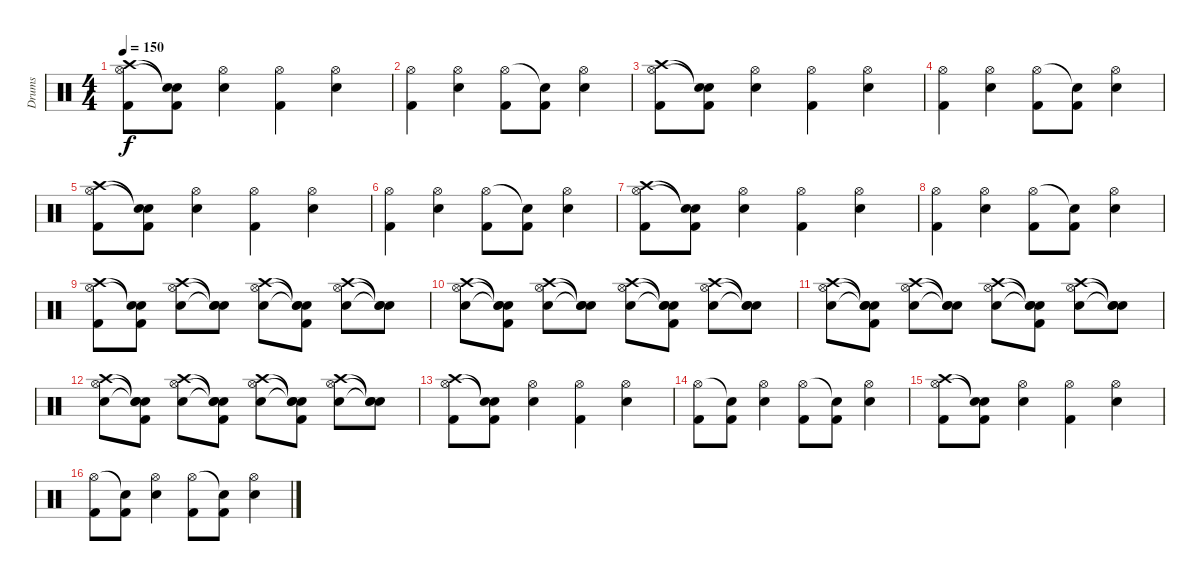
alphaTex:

\track ("Drums" "Drums") {instrument percussion}
\staff {score}
\articulation defaults
\ts (4 4)
\tempo 150
\clef neutral
\ks c
("Crash high (hit)" "Hi-Hat (open)" "Kick (hit) 2").8{dy f} ("Snare (hit)"{t} "Snare (hit)"{t} "Kick (hit) 2").8 ("Snare (hit) 2" "Hi-Hat (open)").4 ("Hi-Hat (open)" "Kick (hit) 2").4 ("Snare (hit) 2" "Hi-Hat (open)").4 |
("Hi-Hat (open)" "Kick (hit) 2").4 ("Snare (hit) 2" "Hi-Hat (open)").4 ("Hi-Hat (open)" "Kick (hit) 2").8 ("Snare (hit)"{t} "Kick (hit) 2").8 ("Snare (hit) 2" "Hi-Hat (open)").4 |
("Crash high (hit)" "Hi-Hat (open)" "Kick (hit) 2").8 ("Snare (hit)"{t} "Snare (hit)"{t} "Kick (hit) 2").8 ("Snare (hit) 2" "Hi-Hat (open)").4 ("Hi-Hat (open)" "Kick (hit) 2").4 ("Snare (hit) 2" "Hi-Hat (open)").4 |
("Hi-Hat (open)" "Kick (hit) 2").4 ("Snare (hit) 2" "Hi-Hat (open)").4 ("Hi-Hat (open)" "Kick (hit) 2").8 ("Snare (hit)"{t} "Kick (hit) 2").8 ("Snare (hit) 2" "Hi-Hat (open)").4 |
("Crash high (hit)" "Hi-Hat (open)" "Kick (hit) 2").8 ("Snare (hit)"{t} "Snare (hit)"{t} "Kick (hit) 2").8 ("Snare (hit) 2" "Hi-Hat (open)").4 ("Hi-Hat (open)" "Kick (hit) 2").4 ("Snare (hit) 2" "Hi-Hat (open)").4 |
("Hi-Hat (open)" "Kick (hit) 2").4 ("Snare (hit) 2" "Hi-Hat (open)").4 ("Hi-Hat (open)" "Kick (hit) 2").8 ("Snare (hit)"{t} "Kick (hit) 2").8 ("Snare (hit) 2" "Hi-Hat (open)").4 |
("Crash high (hit)" "Hi-Hat (open)" "Kick (hit) 2").8 ("Snare (hit)"{t} "Snare (hit)"{t} "Kick (hit) 2").8 ("Snare (hit) 2" "Hi-Hat (open)").4 ("Hi-Hat (open)" "Kick (hit) 2").4 ("Snare (hit) 2" "Hi-Hat (open)").4 |
("Hi-Hat (open)" "Kick (hit) 2").4 ("Snare (hit) 2" "Hi-Hat (open)").4 ("Hi-Hat (open)" "Kick (hit) 2").8 ("Snare (hit)"{t} "Kick (hit) 2").8 ("Snare (hit) 2" "Hi-Hat (open)").4 |
("Crash high (hit)" "Hi-Hat (open)" "Kick (hit) 2").8 ("Snare (hit)"{t} "Snare (hit)"{t} "Kick (hit) 2").8 ("Crash high (hit)" "Snare (hit) 2" "Hi-Hat (open)").8 ("Snare (hit)"{t} "Snare (hit)"{t} "Snare (hit)"{t}).8 ("Crash high (hit)" "Snare (hit) 2" "Hi-Hat (open)").8 ("Snare (hit)"{t} "Snare (hit)"{t} "Snare (hit)"{t} "Kick (hit) 2").8 ("Crash high (hit)" "Snare (hit) 2" "Hi-Hat (open)").8 ("Snare (hit)"{t} "Snare (hit)"{t} "Snare (hit)"{t}).8 |
("Crash high (hit)" "Snare (hit) 2" "Hi-Hat (open)").8 ("Snare (hit)"{t} "Snare (hit)"{t} "Snare (hit)"{t} "Kick (hit) 2").8 ("Crash high (hit)" "Snare (hit) 2" "Hi-Hat (open)").8 ("Snare (hit)"{t} "Snare (hit)"{t} "Snare (hit)"{t}).8 ("Crash high (hit)" "Snare (hit) 2" "Hi-Hat (open)").8 ("Snare (hit)"{t} "Snare (hit)"{t} "Snare (hit)"{t} "Kick (hit) 2").8 ("Crash high (hit)" "Snare (hit) 2" "Hi-Hat (open)").8 ("Snare (hit)"{t} "Snare (hit)"{t} "Snare (hit)"{t}).8 |
("Crash high (hit)" "Snare (hit) 2" "Hi-Hat (open)").8 ("Snare (hit)"{t} "Snare (hit)"{t} "Snare (hit)"{t} "Kick (hit) 2").8 ("Crash high (hit)" "Snare (hit) 2" "Hi-Hat (open)").8 ("Snare (hit)"{t} "Snare (hit)"{t} "Snare (hit)"{t}).8 ("Crash high (hit)" "Snare (hit) 2" "Hi-Hat (open)").8 ("Snare (hit)"{t} "Snare (hit)"{t} "Snare (hit)"{t} "Kick (hit) 2").8 ("Crash high (hit)" "Snare (hit) 2" "Hi-Hat (open)").8 ("Snare (hit)"{t} "Snare (hit)"{t} "Snare (hit)"{t}).8 |
("Crash high (hit)" "Snare (hit) 2" "Hi-Hat (open)").8 ("Snare (hit)"{t} "Snare (hit)"{t} "Snare (hit)"{t} "Kick (hit) 2").8 ("Crash high (hit)" "Snare (hit) 2" "Hi-Hat (open)").8 ("Snare (hit)"{t} "Snare (hit)"{t} "Snare (hit)"{t} "Kick (hit) 2").8 ("Crash high (hit)" "Snare (hit) 2" "Hi-Hat (open)").8 ("Snare (hit)"{t} "Snare (hit)"{t} "Snare (hit)"{t} "Kick (hit) 2").8 ("Crash high (hit)" "Snare (hit) 2" "Hi-Hat (open)").8 ("Snare (hit)"{t} "Snare (hit)"{t} "Snare (hit)"{t}).8 |
("Crash high (hit)" "Hi-Hat (open)" "Kick (hit) 2").8 ("Snare (hit)"{t} "Snare (hit)"{t} "Kick (hit) 2").8 ("Snare (hit) 2" "Hi-Hat (open)").4 ("Hi-Hat (open)" "Kick (hit) 2").4 ("Snare (hit) 2" "Hi-Hat (open)").4 |
("Hi-Hat (open)" "Kick (hit) 2").8 ("Snare (hit)"{t} "Kick (hit) 2").8 ("Snare (hit) 2" "Hi-Hat (open)").4 ("Hi-Hat (open)" "Kick (hit) 2").8 ("Snare (hit)"{t} "Kick (hit) 2").8 ("Snare (hit) 2" "Hi-Hat (open)").4 |
("Crash high (hit)" "Hi-Hat (open)" "Kick (hit) 2").8 ("Snare (hit)"{t} "Snare (hit)"{t} "Kick (hit) 2").8 ("Snare (hit) 2" "Hi-Hat (open)").4 ("Hi-Hat (open)" "Kick (hit) 2").4 ("Snare (hit) 2" "Hi-Hat (open)").4 |
("Hi-Hat (open)" "Kick (hit) 2").8 ("Snare (hit)"{t} "Kick (hit) 2").8 ("Snare (hit) 2" "Hi-Hat (open)").4 ("Hi-Hat (open)" "Kick (hit) 2").8 ("Snare (hit)"{t} "Kick (hit) 2").8 ("Snare (hit) 2" "Hi-Hat (open)").4
